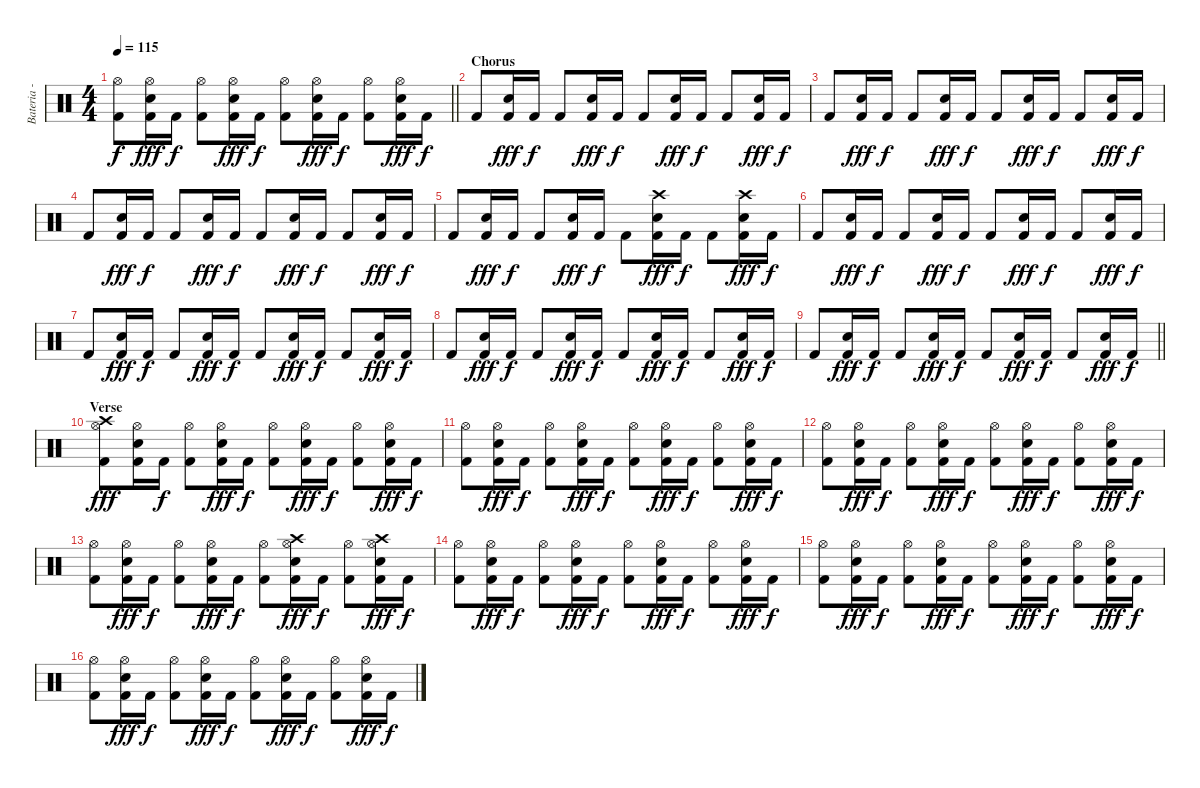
\track ("Bateria - Larzon" "Bateria - ") {instrument percussion}
\staff {score}
\articulation defaults
\ts (4 4)
\tempo 115
\clef neutral
\barLineRight lightlight
\ks c
("Kick (hit) 2" "Hi-Hat (open)").8{dy f} ("Kick (hit) 2" "Hi-Hat (open)" "Electric Snare (hit)").16{dy fff} "Kick (hit) 2".16{dy f} ("Kick (hit) 2" "Hi-Hat (open)").8 ("Kick (hit) 2" "Hi-Hat (open)" "Electric Snare (hit)").16{dy fff} "Kick (hit) 2".16{dy f} ("Kick (hit) 2" "Hi-Hat (open)").8 ("Kick (hit) 2" "Hi-Hat (open)" "Electric Snare (hit)").16{dy fff} "Kick (hit) 2".16{dy f} ("Kick (hit) 2" "Hi-Hat (open)").8 ("Kick (hit) 2" "Hi-Hat (open)" "Electric Snare (hit)").16{dy fff} "Kick (hit) 2".16{dy f} |
\section ("" "Chorus")
"Kick (hit) 2".8 ("Kick (hit) 2" "Electric Snare (hit)").16{dy fff} "Kick (hit) 2".16{dy f} "Kick (hit) 2".8 ("Kick (hit) 2" "Electric Snare (hit)").16{dy fff} "Kick (hit) 2".16{dy f} "Kick (hit) 2".8 ("Kick (hit) 2" "Electric Snare (hit)").16{dy fff} "Kick (hit) 2".16{dy f} "Kick (hit) 2".8 ("Kick (hit) 2" "Electric Snare (hit)").16{dy fff} "Kick (hit) 2".16{dy f} |
"Kick (hit) 2".8 ("Kick (hit) 2" "Electric Snare (hit)").16{dy fff} "Kick (hit) 2".16{dy f} "Kick (hit) 2".8 ("Kick (hit) 2" "Electric Snare (hit)").16{dy fff} "Kick (hit) 2".16{dy f} "Kick (hit) 2".8 ("Kick (hit) 2" "Electric Snare (hit)").16{dy fff} "Kick (hit) 2".16{dy f} "Kick (hit) 2".8 ("Kick (hit) 2" "Electric Snare (hit)").16{dy fff} "Kick (hit) 2".16{dy f} |
"Kick (hit) 2".8 ("Kick (hit) 2" "Electric Snare (hit)").16{dy fff} "Kick (hit) 2".16{dy f} "Kick (hit) 2".8 ("Kick (hit) 2" "Electric Snare (hit)").16{dy fff} "Kick (hit) 2".16{dy f} "Kick (hit) 2".8 ("Kick (hit) 2" "Electric Snare (hit)").16{dy fff} "Kick (hit) 2".16{dy f} "Kick (hit) 2".8 ("Kick (hit) 2" "Electric Snare (hit)").16{dy fff} "Kick (hit) 2".16{dy f} |
"Kick (hit) 2".8 ("Kick (hit) 2" "Electric Snare (hit)").16{dy fff} "Kick (hit) 2".16{dy f} "Kick (hit) 2".8 ("Kick (hit) 2" "Electric Snare (hit)").16{dy fff} "Kick (hit) 2".16{dy f} "Kick (hit) 2".8 ("Kick (hit) 2" "Crash high (hit)" "Electric Snare (hit)").16{dy fff} "Kick (hit) 2".16{dy f} "Kick (hit) 2".8 ("Kick (hit) 2" "Crash high (hit)" "Electric Snare (hit)").16{dy fff} "Kick (hit) 2".16{dy f} |
"Kick (hit) 2".8 ("Kick (hit) 2" "Electric Snare (hit)").16{dy fff} "Kick (hit) 2".16{dy f} "Kick (hit) 2".8 ("Kick (hit) 2" "Electric Snare (hit)").16{dy fff} "Kick (hit) 2".16{dy f} "Kick (hit) 2".8 ("Kick (hit) 2" "Electric Snare (hit)").16{dy fff} "Kick (hit) 2".16{dy f} "Kick (hit) 2".8 ("Kick (hit) 2" "Electric Snare (hit)").16{dy fff} "Kick (hit) 2".16{dy f} |
"Kick (hit) 2".8 ("Kick (hit) 2" "Electric Snare (hit)").16{dy fff} "Kick (hit) 2".16{dy f} "Kick (hit) 2".8 ("Kick (hit) 2" "Electric Snare (hit)").16{dy fff} "Kick (hit) 2".16{dy f} "Kick (hit) 2".8 ("Kick (hit) 2" "Electric Snare (hit)").16{dy fff} "Kick (hit) 2".16{dy f} "Kick (hit) 2".8 ("Kick (hit) 2" "Electric Snare (hit)").16{dy fff} "Kick (hit) 2".16{dy f} |
"Kick (hit) 2".8 ("Kick (hit) 2" "Electric Snare (hit)").16{dy fff} "Kick (hit) 2".16{dy f} "Kick (hit) 2".8 ("Kick (hit) 2" "Electric Snare (hit)").16{dy fff} "Kick (hit) 2".16{dy f} "Kick (hit) 2".8 ("Kick (hit) 2" "Electric Snare (hit)").16{dy fff} "Kick (hit) 2".16{dy f} "Kick (hit) 2".8 ("Kick (hit) 2" "Electric Snare (hit)").16{dy fff} "Kick (hit) 2".16{dy f} |
\barLineRight lightlight "Kick (hit) 2".8
("Kick (hit) 2" "Electric Snare (hit)").16{dy fff} "Kick (hit) 2".16{dy f} "Kick (hit) 2".8 ("Kick (hit) 2" "Electric Snare (hit)").16{dy fff} "Kick (hit) 2".16{dy f} "Kick (hit) 2".8 ("Kick (hit) 2" "Electric Snare (hit)").16{dy fff} "Kick (hit) 2".16{dy f} "Kick (hit) 2".8 ("Kick (hit) 2" "Electric Snare (hit)").16{dy fff} "Kick (hit) 2".16{dy f} |
\section ("" "Verse")
("Kick (hit) 2" "Hi-Hat (open)" "Crash high (hit)").8{dy fff} ("Kick (hit) 2" "Hi-Hat (open)" "Electric Snare (hit)").16 "Kick (hit) 2".16{dy f} ("Kick (hit) 2" "Hi-Hat (open)").8 ("Kick (hit) 2" "Hi-Hat (open)" "Electric Snare (hit)").16{dy fff} "Kick (hit) 2".16{dy f} ("Kick (hit) 2" "Hi-Hat (open)").8 ("Kick (hit) 2" "Hi-Hat (open)" "Electric Snare (hit)").16{dy fff} "Kick (hit) 2".16{dy f} ("Kick (hit) 2" "Hi-Hat (open)").8 ("Kick (hit) 2" "Hi-Hat (open)" "Electric Snare (hit)").16{dy fff} "Kick (hit) 2".16{dy f} |
("Kick (hit) 2" "Hi-Hat (open)").8 ("Kick (hit) 2" "Hi-Hat (open)" "Electric Snare (hit)").16{dy fff} "Kick (hit) 2".16{dy f} ("Kick (hit) 2" "Hi-Hat (open)").8 ("Kick (hit) 2" "Hi-Hat (open)" "Electric Snare (hit)").16{dy fff} "Kick (hit) 2".16{dy f} ("Kick (hit) 2" "Hi-Hat (open)").8 ("Kick (hit) 2" "Hi-Hat (open)" "Electric Snare (hit)").16{dy fff} "Kick (hit) 2".16{dy f} ("Kick (hit) 2" "Hi-Hat (open)").8 ("Kick (hit) 2" "Hi-Hat (open)" "Electric Snare (hit)").16{dy fff} "Kick (hit) 2".16{dy f} |
("Kick (hit) 2" "Hi-Hat (open)").8 ("Kick (hit) 2" "Hi-Hat (open)" "Electric Snare (hit)").16{dy fff} "Kick (hit) 2".16{dy f} ("Kick (hit) 2" "Hi-Hat (open)").8 ("Kick (hit) 2" "Hi-Hat (open)" "Electric Snare (hit)").16{dy fff} "Kick (hit) 2".16{dy f} ("Kick (hit) 2" "Hi-Hat (open)").8 ("Kick (hit) 2" "Hi-Hat (open)" "Electric Snare (hit)").16{dy fff} "Kick (hit) 2".16{dy f} ("Kick (hit) 2" "Hi-Hat (open)").8 ("Kick (hit) 2" "Hi-Hat (open)" "Electric Snare (hit)").16{dy fff} "Kick (hit) 2".16{dy f} |
("Kick (hit) 2" "Hi-Hat (open)").8 ("Kick (hit) 2" "Hi-Hat (open)" "Electric Snare (hit)").16{dy fff} "Kick (hit) 2".16{dy f} ("Kick (hit) 2" "Hi-Hat (open)").8 ("Kick (hit) 2" "Hi-Hat (open)" "Electric Snare (hit)").16{dy fff} "Kick (hit) 2".16{dy f} ("Kick (hit) 2" "Hi-Hat (open)").8 ("Kick (hit) 2" "Hi-Hat (open)" "Crash high (hit)" "Electric Snare (hit)").16{dy fff} "Kick (hit) 2".16{dy f} ("Kick (hit) 2" "Hi-Hat (open)").8 ("Kick (hit) 2" "Hi-Hat (open)" "Crash high (hit)" "Electric Snare (hit)").16{dy fff} "Kick (hit) 2".16{dy f} |
("Kick (hit) 2" "Hi-Hat (open)").8 ("Kick (hit) 2" "Hi-Hat (open)" "Electric Snare (hit)").16{dy fff} "Kick (hit) 2".16{dy f} ("Kick (hit) 2" "Hi-Hat (open)").8 ("Kick (hit) 2" "Hi-Hat (open)" "Electric Snare (hit)").16{dy fff} "Kick (hit) 2".16{dy f} ("Kick (hit) 2" "Hi-Hat (open)").8 ("Kick (hit) 2" "Hi-Hat (open)" "Electric Snare (hit)").16{dy fff} "Kick (hit) 2".16{dy f} ("Kick (hit) 2" "Hi-Hat (open)").8 ("Kick (hit) 2" "Hi-Hat (open)" "Electric Snare (hit)").16{dy fff} "Kick (hit) 2".16{dy f} |
("Kick (hit) 2" "Hi-Hat (open)").8 ("Kick (hit) 2" "Hi-Hat (open)" "Electric Snare (hit)").16{dy fff} "Kick (hit) 2".16{dy f} ("Kick (hit) 2" "Hi-Hat (open)").8 ("Kick (hit) 2" "Hi-Hat (open)" "Electric Snare (hit)").16{dy fff} "Kick (hit) 2".16{dy f} ("Kick (hit) 2" "Hi-Hat (open)").8 ("Kick (hit) 2" "Hi-Hat (open)" "Electric Snare (hit)").16{dy fff} "Kick (hit) 2".16{dy f} ("Kick (hit) 2" "Hi-Hat (open)").8 ("Kick (hit) 2" "Hi-Hat (open)" "Electric Snare (hit)").16{dy fff} "Kick (hit) 2".16{dy f} |
("Kick (hit) 2" "Hi-Hat (open)").8 ("Kick (hit) 2" "Hi-Hat (open)" "Electric Snare (hit)").16{dy fff} "Kick (hit) 2".16{dy f} ("Kick (hit) 2" "Hi-Hat (open)").8 ("Kick (hit) 2" "Hi-Hat (open)" "Electric Snare (hit)").16{dy fff} "Kick (hit) 2".16{dy f} ("Kick (hit) 2" "Hi-Hat (open)").8 ("Kick (hit) 2" "Hi-Hat (open)" "Electric Snare (hit)").16{dy fff} "Kick (hit) 2".16{dy f} ("Kick (hit) 2" "Hi-Hat (open)").8 ("Kick (hit) 2" "Hi-Hat (open)" "Electric Snare (hit)").16{dy fff} "Kick (hit) 2".16{dy f}
